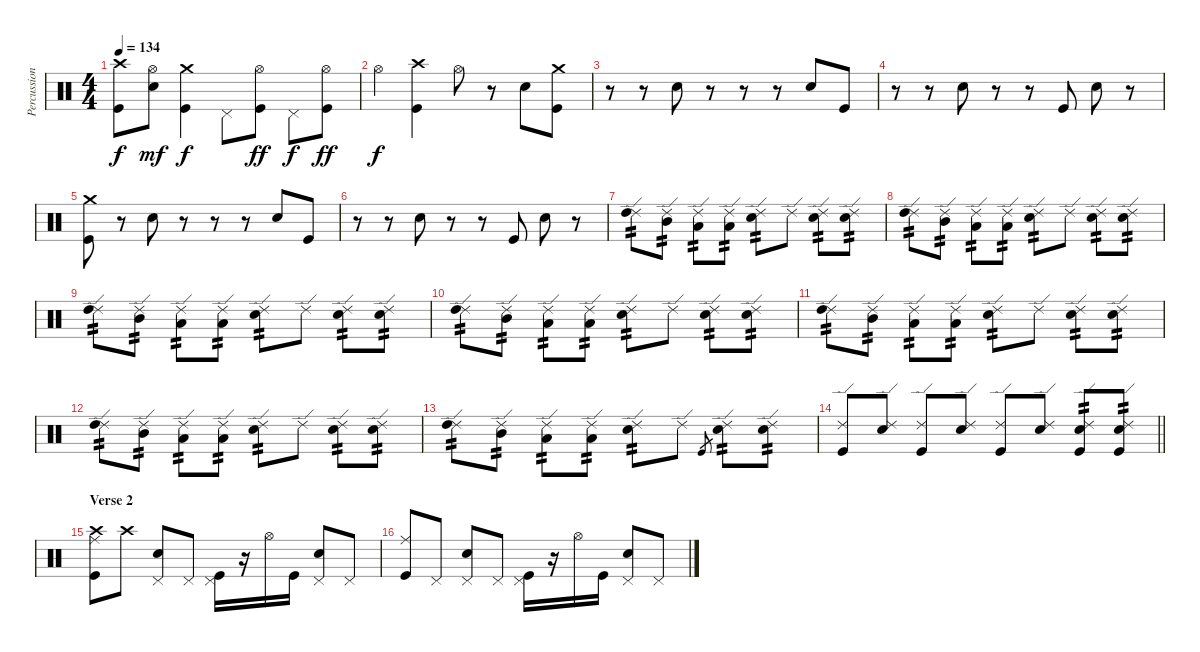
\track ("Percussion" "Percussion") {instrument percussion}
\staff {score}
\articulation defaults
\ts (4 4)
\tempo 134
\clef neutral
\ks c
("Crash high (hit)" "Kick (hit)").8{dy f} ("Hi-Hat (open)" "Electric Snare (hit)").8{dy mf} ("Crash medium (hit)" "Kick (hit)").4{dy f} "Pedal Hi-Hat (hit)".8 ("Hi-Hat (open)" "Kick (hit)").8{dy ff} "Pedal Hi-Hat (hit)".8{dy f} ("Hi-Hat (open)" "Kick (hit)").8{dy ff} |
"Hi-Hat (open)".4{dy f} ("Crash high (hit)" "Kick (hit)").4 "Hi-Hat (open)".8 r.8 "Snare (hit) 2".8 ("Crash medium (hit)" "Kick (hit)").8 |
r.8 r.8 "Snare (hit) 2".8 r.8 r.8 r.8 "Snare (hit) 2".8 "Kick (hit)".8 |
r.8 r.8 "Snare (hit) 2".8 r.8 r.8 "Kick (hit)".8 "Snare (hit) 2".8 r.8 |
("Crash medium (hit)" "Kick (hit)").8 r.8 "Snare (hit) 2".8 r.8 r.8 r.8 "Snare (hit) 2".8 "Kick (hit)".8 |
r.8 r.8 "Snare (hit) 2".8 r.8 r.8 "Kick (hit)".8 "Snare (hit) 2".8 r.8 |
("Ride (edge) 2" "High Tom (hit)").8{tp 2} ("Ride (edge) 2" "Mid Tom (hit)").8{tp 2} ("Ride (edge) 2" "Low Tom (hit)").8{tp 2} ("Ride (edge) 2" "Low Floor Tom (hit)").8{tp 2} ("Ride (edge) 2" "Electric Snare (hit)").8{tp 2} "Ride (edge) 2".8 ("Ride (edge) 2" "Electric Snare (hit)").8{tp 2} ("Ride (edge) 2" "Electric Snare (hit)").8{tp 2} |
("Ride (edge) 2" "High Tom (hit)").8{tp 2} ("Ride (edge) 2" "Mid Tom (hit)").8{tp 2} ("Ride (edge) 2" "Low Tom (hit)").8{tp 2} ("Ride (edge) 2" "Low Floor Tom (hit)").8{tp 2} ("Ride (edge) 2" "Electric Snare (hit)").8{tp 2} "Ride (edge) 2".8 ("Ride (edge) 2" "Electric Snare (hit)").8{tp 2} ("Ride (edge) 2" "Electric Snare (hit)").8{tp 2} |
("Ride (edge) 2" "High Tom (hit)").8{tp 2} ("Ride (edge) 2" "Mid Tom (hit)").8{tp 2} ("Ride (edge) 2" "Low Tom (hit)").8{tp 2} ("Ride (edge) 2" "Low Floor Tom (hit)").8{tp 2} ("Ride (edge) 2" "Electric Snare (hit)").8{tp 2} "Ride (edge) 2".8 ("Ride (edge) 2" "Electric Snare (hit)").8{tp 2} ("Ride (edge) 2" "Electric Snare (hit)").8{tp 2} |
("Ride (edge) 2" "High Tom (hit)").8{tp 2} ("Ride (edge) 2" "Mid Tom (hit)").8{tp 2} ("Ride (edge) 2" "Low Tom (hit)").8{tp 2} ("Ride (edge) 2" "Low Floor Tom (hit)").8{tp 2} ("Ride (edge) 2" "Electric Snare (hit)").8{tp 2} "Ride (edge) 2".8 ("Ride (edge) 2" "Electric Snare (hit)").8{tp 2} ("Ride (edge) 2" "Electric Snare (hit)").8{tp 2} |
("Ride (edge) 2" "High Tom (hit)").8{tp 2} ("Ride (edge) 2" "Mid Tom (hit)").8{tp 2} ("Ride (edge) 2" "Low Tom (hit)").8{tp 2} ("Ride (edge) 2" "Low Floor Tom (hit)").8{tp 2} ("Ride (edge) 2" "Electric Snare (hit)").8{tp 2} "Ride (edge) 2".8 ("Ride (edge) 2" "Electric Snare (hit)").8{tp 2} ("Ride (edge) 2" "Electric Snare (hit)").8{tp 2} |
("Ride (edge) 2" "High Tom (hit)").8{tp 2} ("Ride (edge) 2" "Mid Tom (hit)").8{tp 2} ("Ride (edge) 2" "Low Tom (hit)").8{tp 2} ("Ride (edge) 2" "Low Floor Tom (hit)").8{tp 2} ("Ride (edge) 2" "Electric Snare (hit)").8{tp 2} "Ride (edge) 2".8 ("Ride (edge) 2" "Electric Snare (hit)").8{tp 2} ("Ride (edge) 2" "Electric Snare (hit)").8{tp 2} |
("Ride (edge) 2" "High Tom (hit)").8{tp 2} ("Ride (edge) 2" "Mid Tom (hit)").8{tp 2} ("Ride (edge) 2" "Low Tom (hit)").8{tp 2} ("Ride (edge) 2" "Low Floor Tom (hit)").8{tp 2} ("Ride (edge) 2" "Electric Snare (hit)").8{tp 2} "Ride (edge) 2".8 "Kick (hit)".8{gr} ("Ride (edge) 2" "Electric Snare (hit)").8{tp 2} ("Ride (edge) 2" "Electric Snare (hit)").8{tp 2} |
\barLineRight lightlight
("Kick (hit)" "Ride (edge) 2").8 ("Ride (edge) 2" "Electric Snare (hit)").8 ("Kick (hit)" "Ride (edge) 2").8 ("Ride (edge) 2" "Electric Snare (hit)").8 ("Kick (hit)" "Ride (edge) 2").8 ("Ride (edge) 2" "Electric Snare (hit)").8 ("Kick (hit)" "Ride (edge) 2" "Electric Snare (hit)").8{tp 2} ("Kick (hit)" "Ride (edge) 2" "Electric Snare (hit)").8{tp 2} |
\section ("" "Verse 2")
("Crash high (hit)" "Ride (middle)" "Kick (hit)").8 "Crash high (hit)".8 ("Pedal Hi-Hat (hit)" "Electric Snare (hit)").8 "Pedal Hi-Hat (hit)".8 ("Pedal Hi-Hat (hit)" "Kick (hit)").16 r.16 "Hi-Hat (open)".16 "Kick (hit)".16 ("Pedal Hi-Hat (hit)" "Electric Snare (hit)").8 "Pedal Hi-Hat (hit)".8 |
("Ride (middle)" "Kick (hit)").8 "Pedal Hi-Hat (hit)".8 ("Pedal Hi-Hat (hit)" "Electric Snare (hit)").8 "Pedal Hi-Hat (hit)".8 ("Pedal Hi-Hat (hit)" "Kick (hit)").16 r.16 "Hi-Hat (open)".16 "Kick (hit)".16 ("Pedal Hi-Hat (hit)" "Electric Snare (hit)").8 "Pedal Hi-Hat (hit)".8
